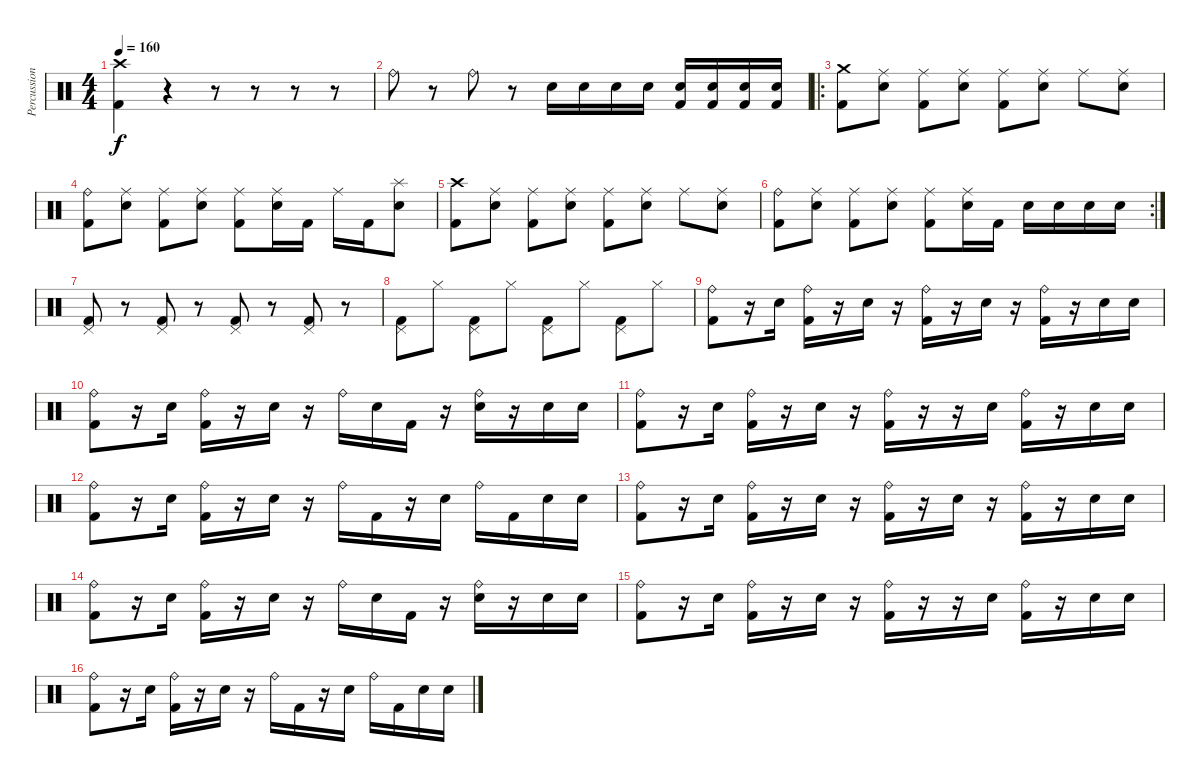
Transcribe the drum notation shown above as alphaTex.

\track ("Percussion" "Percussion") {instrument percussion}
\staff {score}
\articulation defaults
\ts (4 4)
\tempo 160
\clef neutral
\ks c
("Crash high (hit)" "Kick (hit) 2").4{dy f} r.4 r.8 r.8 r.8 r.8 |
"Ride (bell)".8 r.8 "Ride (bell)".8 r.8 "Electric Snare (hit)".16 "Electric Snare (hit)".16 "Electric Snare (hit)".16 "Electric Snare (hit)".16 ("Electric Snare (hit)" "Kick (hit) 2").16 ("Electric Snare (hit)" "Kick (hit) 2").16 ("Electric Snare (hit)" "Kick (hit) 2").16 ("Electric Snare (hit)" "Kick (hit) 2").16 |
\ro
("Crash medium (hit)" "Kick (hit) 2").8 ("Ride (middle)" "Electric Snare (hit)").8 ("Ride (middle)" "Kick (hit) 2").8 ("Ride (middle)" "Electric Snare (hit)").8 ("Ride (middle)" "Kick (hit) 2").8 ("Ride (middle)" "Electric Snare (hit)").8 "Ride (middle)".8 ("Ride (middle)" "Electric Snare (hit)").8 |
("Ride (bell)" "Kick (hit) 2").8 ("Ride (middle)" "Electric Snare (hit)").8 ("Ride (middle)" "Kick (hit) 2").8 ("Ride (middle)" "Electric Snare (hit)").8 ("Ride (middle)" "Kick (hit) 2").8 ("Ride (middle)" "Electric Snare (hit)").16 "Kick (hit) 2".16 "Ride (middle)".16 "Kick (hit) 2".16 ("Splash (hit)" "Electric Snare (hit)").8 |
("Crash high (hit)" "Kick (hit) 2").8 ("Ride (middle)" "Electric Snare (hit)").8 ("Ride (middle)" "Kick (hit) 2").8 ("Ride (middle)" "Electric Snare (hit)").8 ("Ride (middle)" "Kick (hit) 2").8 ("Ride (middle)" "Electric Snare (hit)").8 "Ride (middle)".8 ("Ride (middle)" "Electric Snare (hit)").8 |
\rc 2
("Ride (bell)" "Kick (hit) 2").8 ("Ride (middle)" "Electric Snare (hit)").8 ("Ride (middle)" "Kick (hit) 2").8 ("Ride (middle)" "Electric Snare (hit)").8 ("Ride (middle)" "Kick (hit) 2").8 ("Ride (middle)" "Electric Snare (hit)").16 "Kick (hit) 2".16 "Electric Snare (hit)".16 "Electric Snare (hit)".16 "Electric Snare (hit)".16 "Electric Snare (hit)".16 |
("Pedal Hi-Hat (hit)" "Kick (hit) 2").8 r.8 ("Pedal Hi-Hat (hit)" "Kick (hit) 2").8 r.8 ("Pedal Hi-Hat (hit)" "Kick (hit) 2").8 r.8 ("Pedal Hi-Hat (hit)" "Kick (hit) 2").8 r.8 |
("Pedal Hi-Hat (hit)" "Kick (hit) 2").8 "Hi-Hat (closed)".8 ("Pedal Hi-Hat (hit)" "Kick (hit) 2").8 "Hi-Hat (closed)".8 ("Pedal Hi-Hat (hit)" "Kick (hit) 2").8 "Hi-Hat (closed)".8 ("Pedal Hi-Hat (hit)" "Kick (hit) 2").8 "Hi-Hat (closed)".8 |
("Kick (hit) 2" "Ride (bell)").8 r.16 "Electric Snare (hit)".16 ("Kick (hit) 2" "Ride (bell)").16 r.16 "Electric Snare (hit)".16 r.16 ("Kick (hit) 2" "Ride (bell)").16 r.16 "Electric Snare (hit)".16 r.16 ("Kick (hit) 2" "Ride (bell)").16 r.16 "Electric Snare (hit)".16 "Electric Snare (hit)".16 |
("Kick (hit) 2" "Ride (bell)").8 r.16 "Electric Snare (hit)".16 ("Kick (hit) 2" "Ride (bell)").16 r.16 "Electric Snare (hit)".16 r.16 "Ride (bell)".16 "Electric Snare (hit)".16 "Kick (hit) 2".16 r.16 ("Electric Snare (hit)" "Ride (bell)").16 r.16 "Electric Snare (hit)".16 "Electric Snare (hit)".16 |
("Kick (hit) 2" "Ride (bell)").8 r.16 "Electric Snare (hit)".16 ("Kick (hit) 2" "Ride (bell)").16 r.16 "Electric Snare (hit)".16 r.16 ("Kick (hit) 2" "Ride (bell)").16 r.16 r.16 "Electric Snare (hit)".16 ("Kick (hit) 2" "Ride (bell)").16 r.16 "Electric Snare (hit)".16 "Electric Snare (hit)".16 |
("Kick (hit) 2" "Ride (bell)").8 r.16 "Electric Snare (hit)".16 ("Kick (hit) 2" "Ride (bell)").16 r.16 "Electric Snare (hit)".16 r.16 "Ride (bell)".16 "Kick (hit) 2".16 r.16 "Electric Snare (hit)".16 "Ride (bell)".16 "Kick (hit) 2".16 "Electric Snare (hit)".16 "Electric Snare (hit)".16 |
("Kick (hit) 2" "Ride (bell)").8 r.16 "Electric Snare (hit)".16 ("Kick (hit) 2" "Ride (bell)").16 r.16 "Electric Snare (hit)".16 r.16 ("Kick (hit) 2" "Ride (bell)").16 r.16 "Electric Snare (hit)".16 r.16 ("Kick (hit) 2" "Ride (bell)").16 r.16 "Electric Snare (hit)".16 "Electric Snare (hit)".16 |
("Kick (hit) 2" "Ride (bell)").8 r.16 "Electric Snare (hit)".16 ("Kick (hit) 2" "Ride (bell)").16 r.16 "Electric Snare (hit)".16 r.16 "Ride (bell)".16 "Electric Snare (hit)".16 "Kick (hit) 2".16 r.16 ("Electric Snare (hit)" "Ride (bell)").16 r.16 "Electric Snare (hit)".16 "Electric Snare (hit)".16 |
("Kick (hit) 2" "Ride (bell)").8 r.16 "Electric Snare (hit)".16 ("Kick (hit) 2" "Ride (bell)").16 r.16 "Electric Snare (hit)".16 r.16 ("Kick (hit) 2" "Ride (bell)").16 r.16 r.16 "Electric Snare (hit)".16 ("Kick (hit) 2" "Ride (bell)").16 r.16 "Electric Snare (hit)".16 "Electric Snare (hit)".16 |
("Kick (hit) 2" "Ride (bell)").8 r.16 "Electric Snare (hit)".16 ("Kick (hit) 2" "Ride (bell)").16 r.16 "Electric Snare (hit)".16 r.16 "Ride (bell)".16 "Kick (hit) 2".16 r.16 "Electric Snare (hit)".16 "Ride (bell)".16 "Kick (hit) 2".16 "Electric Snare (hit)".16 "Electric Snare (hit)".16
